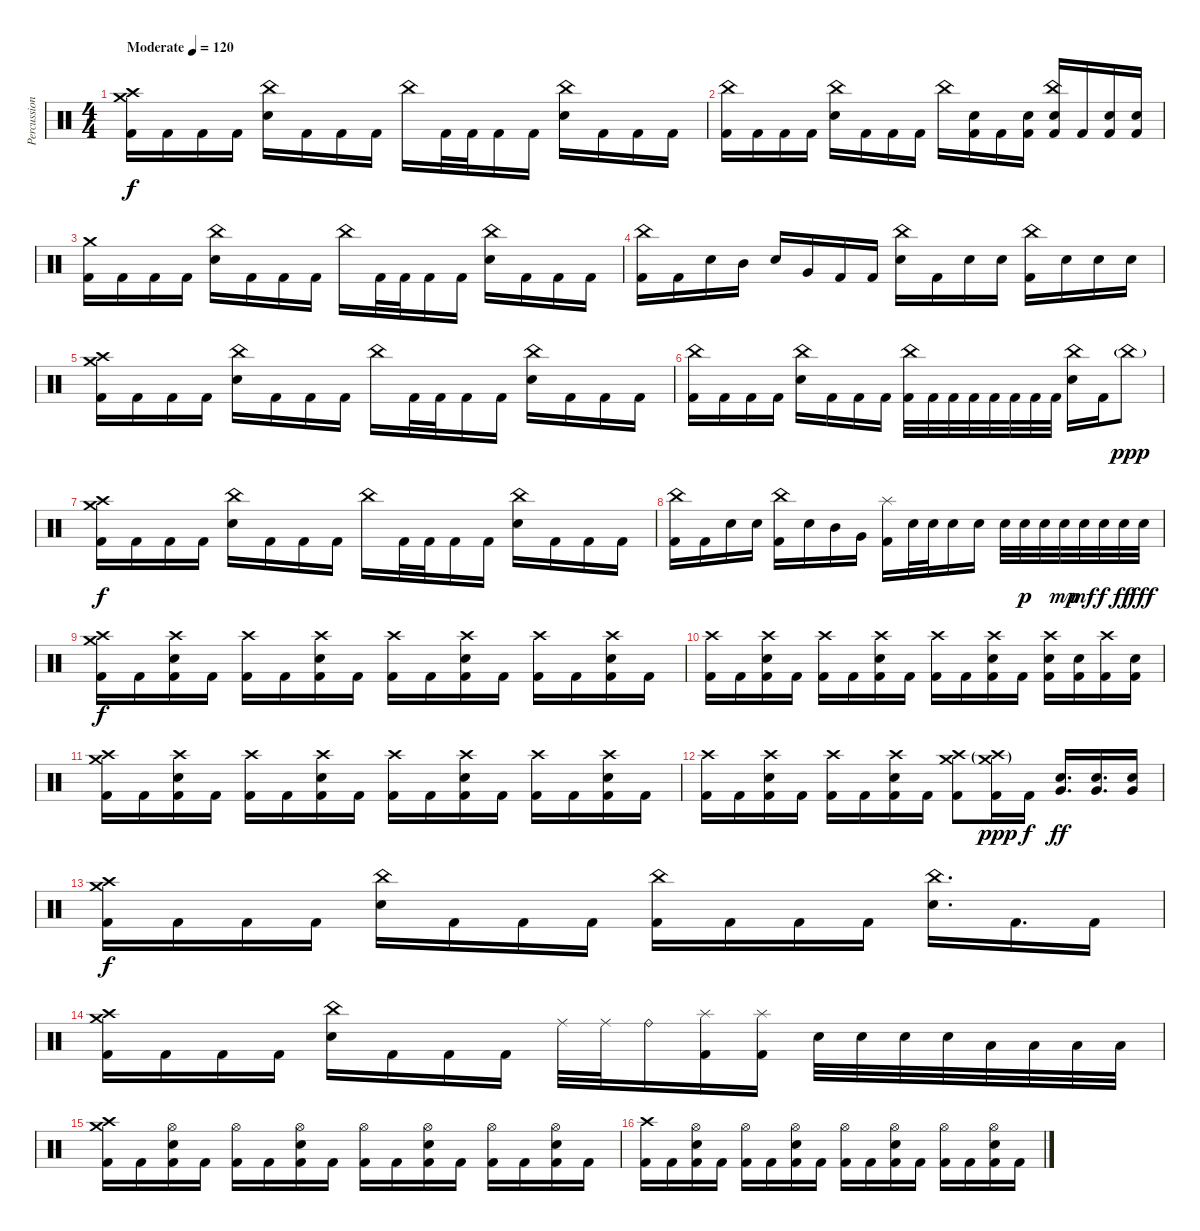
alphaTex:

\track ("Percussion" "Percussion") {instrument percussion}
\staff {score}
\articulation defaults
\ts (4 4)
\tempo (120 "Moderate")
\clef neutral
\ks c
("Crash medium (hit)" "Crash high (hit)" "Kick (hit) 2").16{dy f} "Kick (hit) 2".16 "Kick (hit) 2".16 "Kick (hit) 2".16 ("China (hit)" "Electric Snare (hit)").16 "Kick (hit) 2".16 "Kick (hit) 2".16 "Kick (hit) 2".16 "China (hit)".16 "Kick (hit) 2".32 "Kick (hit) 2".32 "Kick (hit) 2".16 "Kick (hit) 2".16 ("China (hit)" "Electric Snare (hit)").16 "Kick (hit) 2".16 "Kick (hit) 2".16 "Kick (hit) 2".16 |
("China (hit)" "Kick (hit) 2").16 "Kick (hit) 2".16 "Kick (hit) 2".16 "Kick (hit) 2".16 ("China (hit)" "Electric Snare (hit)").16 "Kick (hit) 2".16 "Kick (hit) 2".16 "Kick (hit) 2".16 "China (hit)".16 ("Electric Snare (hit)" "Kick (hit) 2").16 "Kick (hit) 2".16 ("Electric Snare (hit)" "Kick (hit) 2").16 ("China (hit)" "Electric Snare (hit)" "Kick (hit) 2").16 "Kick (hit) 2".16 ("Electric Snare (hit)" "Kick (hit) 2").16 ("Electric Snare (hit)" "Kick (hit) 2").16 |
("Crash medium (hit)" "Kick (hit) 2").16 "Kick (hit) 2".16 "Kick (hit) 2".16 "Kick (hit) 2".16 ("China (hit)" "Electric Snare (hit)").16 "Kick (hit) 2".16 "Kick (hit) 2".16 "Kick (hit) 2".16 "China (hit)".16 "Kick (hit) 2".32 "Kick (hit) 2".32 "Kick (hit) 2".16 "Kick (hit) 2".16 ("China (hit)" "Electric Snare (hit)").16 "Kick (hit) 2".16 "Kick (hit) 2".16 "Kick (hit) 2".16 |
("China (hit)" "Kick (hit) 2").16 "Kick (hit) 2".16 "Electric Snare (hit)".16 "Mid Tom (hit)".16 "Electric Snare (hit)".16 "Very Low Tom (hit)".16 "Kick (hit) 2".16 "Kick (hit) 2".16 ("China (hit)" "Electric Snare (hit)").16 "Kick (hit) 2".16 "Electric Snare (hit)".16 "Electric Snare (hit)".16 ("China (hit)" "Kick (hit) 2").16 "Electric Snare (hit)".16 "Electric Snare (hit)".16 "Electric Snare (hit)".16 |
("Crash medium (hit)" "Crash high (hit)" "Kick (hit) 2").16 "Kick (hit) 2".16 "Kick (hit) 2".16 "Kick (hit) 2".16 ("China (hit)" "Electric Snare (hit)").16 "Kick (hit) 2".16 "Kick (hit) 2".16 "Kick (hit) 2".16 "China (hit)".16 "Kick (hit) 2".32 "Kick (hit) 2".32 "Kick (hit) 2".16 "Kick (hit) 2".16 ("China (hit)" "Electric Snare (hit)").16 "Kick (hit) 2".16 "Kick (hit) 2".16 "Kick (hit) 2".16 |
("China (hit)" "Kick (hit) 2").16 "Kick (hit) 2".16 "Kick (hit) 2".16 "Kick (hit) 2".16 ("China (hit)" "Electric Snare (hit)").16 "Kick (hit) 2".16 "Kick (hit) 2".16 "Kick (hit) 2".16 ("China (hit)" "Kick (hit) 2").32 "Kick (hit) 2".32 "Kick (hit) 2".32 "Kick (hit) 2".32 "Kick (hit) 2".32 "Kick (hit) 2".32 "Kick (hit) 2".32 "Kick (hit) 2".32 ("China (hit)" "Electric Snare (hit)").16 "Kick (hit) 2".16 "China (hit)"{g}.8{dy ppp} |
("Crash medium (hit)" "Crash high (hit)" "Kick (hit) 2").16{dy f} "Kick (hit) 2".16 "Kick (hit) 2".16 "Kick (hit) 2".16 ("China (hit)" "Electric Snare (hit)").16 "Kick (hit) 2".16 "Kick (hit) 2".16 "Kick (hit) 2".16 "China (hit)".16 "Kick (hit) 2".32 "Kick (hit) 2".32 "Kick (hit) 2".16 "Kick (hit) 2".16 ("China (hit)" "Electric Snare (hit)").16 "Kick (hit) 2".16 "Kick (hit) 2".16 "Kick (hit) 2".16 |
("China (hit)" "Kick (hit) 2").16 "Kick (hit) 2".16 "Electric Snare (hit)".16 "Electric Snare (hit)".16 ("China (hit)" "Kick (hit) 2").16 "Electric Snare (hit)".16 "Mid Tom (hit)".16 "Very Low Tom (hit)".16 ("Splash (hit)" "Kick (hit) 2").16 "Electric Snare (hit)".32 "Electric Snare (hit)".32 "Electric Snare (hit)".16 "Electric Snare (hit)".16 "Electric Snare (hit)".32 "Electric Snare (hit)".32{dy p} "Electric Snare (hit)".32 "Electric Snare (hit)".32{dy mp} "Electric Snare (hit)".32{dy mf} "Electric Snare (hit)".32{dy f} "Electric Snare (hit)".32{dy ff} "Electric Snare (hit)".32{dy fff} |
("Crash medium (hit)" "Crash high (hit)" "Kick (hit) 2").16{dy f} "Kick (hit) 2".16 ("Crash high (hit)" "Electric Snare (hit)" "Kick (hit) 2").16 "Kick (hit) 2".16 ("Crash high (hit)" "Kick (hit) 2").16 "Kick (hit) 2".16 ("Crash high (hit)" "Electric Snare (hit)" "Kick (hit) 2").16 "Kick (hit) 2".16 ("Crash high (hit)" "Kick (hit) 2").16 "Kick (hit) 2".16 ("Crash high (hit)" "Electric Snare (hit)" "Kick (hit) 2").16 "Kick (hit) 2".16 ("Crash high (hit)" "Kick (hit) 2").16 "Kick (hit) 2".16 ("Crash high (hit)" "Electric Snare (hit)" "Kick (hit) 2").16 "Kick (hit) 2".16 |
("Crash high (hit)" "Kick (hit) 2").16 "Kick (hit) 2".16 ("Crash high (hit)" "Electric Snare (hit)" "Kick (hit) 2").16 "Kick (hit) 2".16 ("Crash high (hit)" "Kick (hit) 2").16 "Kick (hit) 2".16 ("Crash high (hit)" "Electric Snare (hit)" "Kick (hit) 2").16 "Kick (hit) 2".16 ("Crash high (hit)" "Kick (hit) 2").16 "Kick (hit) 2".16 ("Crash high (hit)" "Electric Snare (hit)" "Kick (hit) 2").16 "Kick (hit) 2".16 ("Crash high (hit)" "Electric Snare (hit)" "Kick (hit) 2").16 ("Electric Snare (hit)" "Kick (hit) 2").16 ("Crash high (hit)" "Kick (hit) 2").16 ("Electric Snare (hit)" "Kick (hit) 2").16 |
("Crash medium (hit)" "Crash high (hit)" "Kick (hit) 2").16 "Kick (hit) 2".16 ("Crash high (hit)" "Electric Snare (hit)" "Kick (hit) 2").16 "Kick (hit) 2".16 ("Crash high (hit)" "Kick (hit) 2").16 "Kick (hit) 2".16 ("Crash high (hit)" "Electric Snare (hit)" "Kick (hit) 2").16 "Kick (hit) 2".16 ("Crash high (hit)" "Kick (hit) 2").16 "Kick (hit) 2".16 ("Crash high (hit)" "Electric Snare (hit)" "Kick (hit) 2").16 "Kick (hit) 2".16 ("Crash high (hit)" "Kick (hit) 2").16 "Kick (hit) 2".16 ("Crash high (hit)" "Electric Snare (hit)" "Kick (hit) 2").16 "Kick (hit) 2".16 |
("Crash high (hit)" "Kick (hit) 2").16 "Kick (hit) 2".16 ("Crash high (hit)" "Electric Snare (hit)" "Kick (hit) 2").16 "Kick (hit) 2".16 ("Crash high (hit)" "Kick (hit) 2").16 "Kick (hit) 2".16 ("Crash high (hit)" "Electric Snare (hit)" "Kick (hit) 2").16 "Kick (hit) 2".16 ("Crash medium (hit)" "Crash high (hit)" "Kick (hit) 2").8 ("Crash medium (hit)"{g} "Crash high (hit)"{g} "Kick (hit) 2").16{dy ppp} "Kick (hit) 2".16{dy f} ("Very Low Tom (hit)" "Electric Snare (hit)").16{d dy ff} ("Very Low Tom (hit)" "Electric Snare (hit)").16{d} ("Very Low Tom (hit)" "Electric Snare (hit)").16 |
("Crash medium (hit)" "Crash high (hit)" "Kick (hit) 2").16{dy f} "Kick (hit) 2".16 "Kick (hit) 2".16 "Kick (hit) 2".16 ("China (hit)" "Electric Snare (hit)").16 "Kick (hit) 2".16 "Kick (hit) 2".16 "Kick (hit) 2".16 ("China (hit)" "Kick (hit) 2").16 "Kick (hit) 2".16 "Kick (hit) 2".16 "Kick (hit) 2".16 ("China (hit)" "Electric Snare (hit)").16{d} "Kick (hit) 2".16{d} "Kick (hit) 2".16 |
("Crash medium (hit)" "Crash high (hit)" "Kick (hit) 2").16 "Kick (hit) 2".16 "Kick (hit) 2".16 "Kick (hit) 2".16 ("China (hit)" "Electric Snare (hit)").16 "Kick (hit) 2".16 "Kick (hit) 2".16 "Kick (hit) 2".16 "Ride (middle)".32 "Ride (middle)".32 "Ride (bell)".16 ("Splash (hit)" "Kick (hit) 2").16 ("Splash (hit)" "Kick (hit) 2").16 "Electric Snare (hit)".32 "Electric Snare (hit)".32 "Electric Snare (hit)".32 "Electric Snare (hit)".32 "Low Tom (hit)".32 "Low Tom (hit)".32 "Low Tom (hit)".32 "Low Tom (hit)".32 |
("Crash medium (hit)" "Crash high (hit)" "Kick (hit) 2").16 "Kick (hit) 2".16 ("Hi-Hat (open)" "Electric Snare (hit)" "Kick (hit) 2").16 "Kick (hit) 2".16 ("Hi-Hat (open)" "Kick (hit) 2").16 "Kick (hit) 2".16 ("Hi-Hat (open)" "Electric Snare (hit)" "Kick (hit) 2").16 "Kick (hit) 2".16 ("Hi-Hat (open)" "Kick (hit) 2").16 "Kick (hit) 2".16 ("Hi-Hat (open)" "Electric Snare (hit)" "Kick (hit) 2").16 "Kick (hit) 2".16 ("Hi-Hat (open)" "Kick (hit) 2").16 "Kick (hit) 2".16 ("Hi-Hat (open)" "Electric Snare (hit)" "Kick (hit) 2").16 "Kick (hit) 2".16 |
("Crash high (hit)" "Kick (hit) 2").16 "Kick (hit) 2".16 ("Hi-Hat (open)" "Electric Snare (hit)" "Kick (hit) 2").16 "Kick (hit) 2".16 ("Hi-Hat (open)" "Kick (hit) 2").16 "Kick (hit) 2".16 ("Hi-Hat (open)" "Electric Snare (hit)" "Kick (hit) 2").16 "Kick (hit) 2".16 ("Hi-Hat (open)" "Kick (hit) 2").16 "Kick (hit) 2".16 ("Hi-Hat (open)" "Electric Snare (hit)" "Kick (hit) 2").16 "Kick (hit) 2".16 ("Hi-Hat (open)" "Kick (hit) 2").16 "Kick (hit) 2".16 ("Hi-Hat (open)" "Electric Snare (hit)" "Kick (hit) 2").16 "Kick (hit) 2".16
